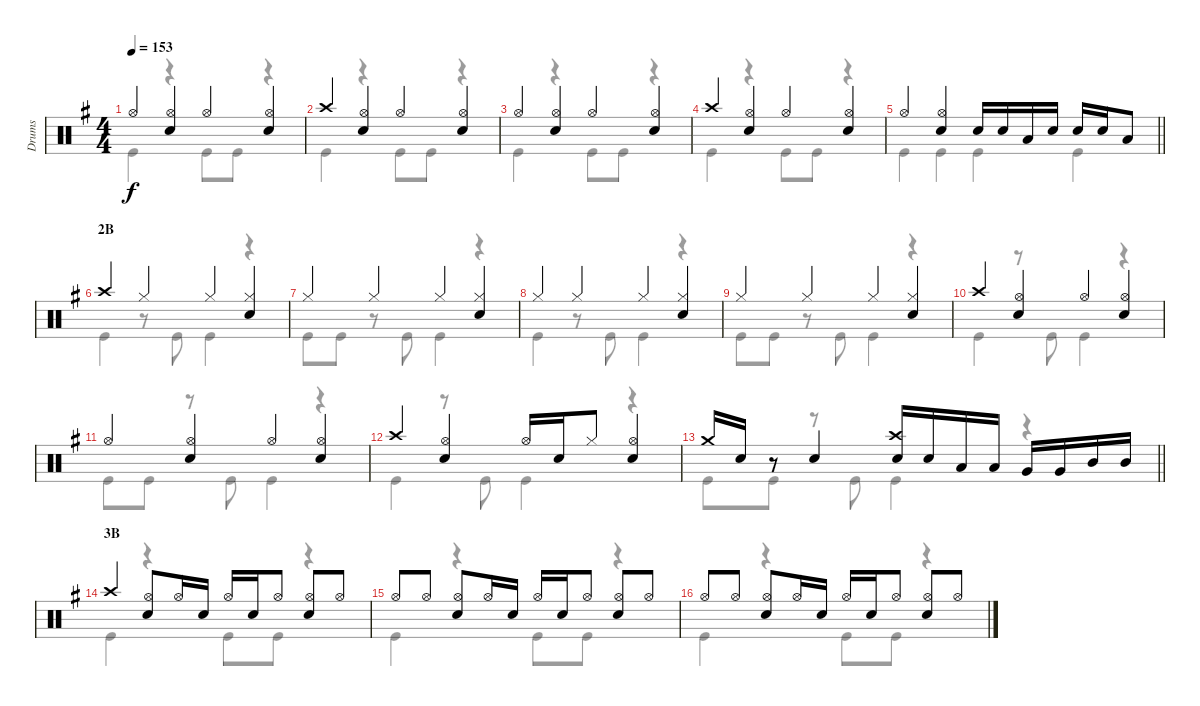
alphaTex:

\track ("Drums" "Drums") {instrument percussion}
\staff {score}
\articulation defaults
\voice
\ts (4 4)
\tempo 153
\clef neutral
\ks g "Hi-Hat (open)".4{dy f}
("Hi-Hat (open)" "Snare (hit) 2").4 "Hi-Hat (open)".4 ("Hi-Hat (open)" "Snare (hit) 2").4 |
"Crash high (hit)".4 ("Hi-Hat (open)" "Snare (hit) 2").4 "Hi-Hat (open)".4 ("Hi-Hat (open)" "Snare (hit) 2").4 |
"Hi-Hat (open)".4 ("Hi-Hat (open)" "Snare (hit) 2").4 "Hi-Hat (open)".4 ("Hi-Hat (open)" "Snare (hit) 2").4 |
"Crash high (hit)".4 ("Hi-Hat (open)" "Snare (hit) 2").4 "Hi-Hat (open)".4 ("Hi-Hat (open)" "Snare (hit) 2").4 |
\barLineRight lightlight "Hi-Hat (open)".4
("Hi-Hat (open)" "Snare (hit) 2").4 "Snare (hit) 2".16 "Snare (hit) 2".16 "Low Tom (hit)".16 "Snare (hit) 2".16 "Snare (hit) 2".16 "Snare (hit) 2".16 "Low Tom (hit)".8 |
\section ("" "2B")
"Crash high (hit)".4 "Hi-Hat (closed)".4 "Hi-Hat (closed)".4 ("Hi-Hat (closed)" "Snare (hit) 2").4 |
"Hi-Hat (closed)".4 "Hi-Hat (closed)".4 "Hi-Hat (closed)".4 ("Hi-Hat (closed)" "Snare (hit) 2").4 |
"Hi-Hat (closed)".4 "Hi-Hat (closed)".4 "Hi-Hat (closed)".4 ("Hi-Hat (closed)" "Snare (hit) 2").4 |
"Hi-Hat (closed)".4 "Hi-Hat (closed)".4 "Hi-Hat (closed)".4 ("Hi-Hat (closed)" "Snare (hit) 2").4 |
"Crash high (hit)".4 ("Hi-Hat (open)" "Snare (hit) 2").4 "Hi-Hat (open)".4 ("Hi-Hat (open)" "Snare (hit) 2").4 |
"Hi-Hat (open)".4 ("Hi-Hat (open)" "Snare (hit) 2").4 "Hi-Hat (open)".4 ("Hi-Hat (open)" "Snare (hit) 2").4 |
"Crash high (hit)".4 ("Hi-Hat (open)" "Snare (hit) 2").4 "Hi-Hat (open)".16 "Snare (hit) 2".16 "Hi-Hat (closed)".8 ("Hi-Hat (open)" "Snare (hit) 2").4 |
\barLineRight lightlight "Crash medium (hit)".16 "Snare (hit) 2".16
r.8 "Snare (hit) 2".4 ("Crash high (hit)" "Snare (hit) 2").16 "Snare (hit) 2".16 "Low Tom (hit)".16 "Low Tom (hit)".16 "Very Low Tom (hit)".16 "Very Low Tom (hit)".16 "Mid Tom (hit)".16 "Mid Tom (hit)".16 |
\section ("" "3B")
"Crash high (hit)".4 ("Hi-Hat (open)" "Snare (hit) 2").8 "Hi-Hat (open)".16 "Snare (hit) 2".16 "Hi-Hat (open)".16 "Snare (hit) 2".16 "Hi-Hat (open)".8 ("Hi-Hat (open)" "Snare (hit) 2").8 "Hi-Hat (open)".8 |
"Hi-Hat (open)".8 "Hi-Hat (open)".8 ("Hi-Hat (open)" "Snare (hit) 2").8 "Hi-Hat (open)".16 "Snare (hit) 2".16 "Hi-Hat (open)".16 "Snare (hit) 2".16 "Hi-Hat (open)".8 ("Hi-Hat (open)" "Snare (hit) 2").8 "Hi-Hat (open)".8 |
"Hi-Hat (open)".8 "Hi-Hat (open)".8 ("Hi-Hat (open)" "Snare (hit) 2").8 "Hi-Hat (open)".16 "Snare (hit) 2".16 "Hi-Hat (open)".16 "Snare (hit) 2".16 "Hi-Hat (open)".8 ("Hi-Hat (open)" "Snare (hit) 2").8 "Hi-Hat (open)".8
\voice
\clef neutral
\ottava regular
\simile none
\ks g "Kick (hit)".4{dy f}
r.4 "Kick (hit)".8 "Kick (hit)".8 r.4 |
"Kick (hit)".4 r.4 "Kick (hit)".8 "Kick (hit)".8 r.4 |
"Kick (hit)".4 r.4 "Kick (hit)".8 "Kick (hit)".8 r.4 |
"Kick (hit)".4 r.4 "Kick (hit)".8 "Kick (hit)".8 r.4 |
\barLineRight lightlight "Kick (hit)".4 "Kick (hit)".4 "Kick (hit)".4 "Kick (hit)".4
|
"Kick (hit)".4 r.8 "Kick (hit)".8 "Kick (hit)".4 r.4 |
"Kick (hit)".8 "Kick (hit)".8 r.8 "Kick (hit)".8 "Kick (hit)".4 r.4 |
"Kick (hit)".4 r.8 "Kick (hit)".8 "Kick (hit)".4 r.4 |
"Kick (hit)".8 "Kick (hit)".8 r.8 "Kick (hit)".8 "Kick (hit)".4 r.4 |
"Kick (hit)".4 r.8 "Kick (hit)".8 "Kick (hit)".4 r.4 |
"Kick (hit)".8 "Kick (hit)".8 r.8 "Kick (hit)".8 "Kick (hit)".4 r.4 |
"Kick (hit)".4 r.8 "Kick (hit)".8 "Kick (hit)".4 r.4 |
\barLineRight lightlight "Kick (hit)".8 "Kick (hit)".8
r.8 "Kick (hit)".8 "Kick (hit)".4 r.4 |
"Kick (hit)".4 r.4 "Kick (hit)".8 "Kick (hit)".8 r.4 |
"Kick (hit)".4 r.4 "Kick (hit)".8 "Kick (hit)".8 r.4 |
"Kick (hit)".4 r.4 "Kick (hit)".8 "Kick (hit)".8 r.4
